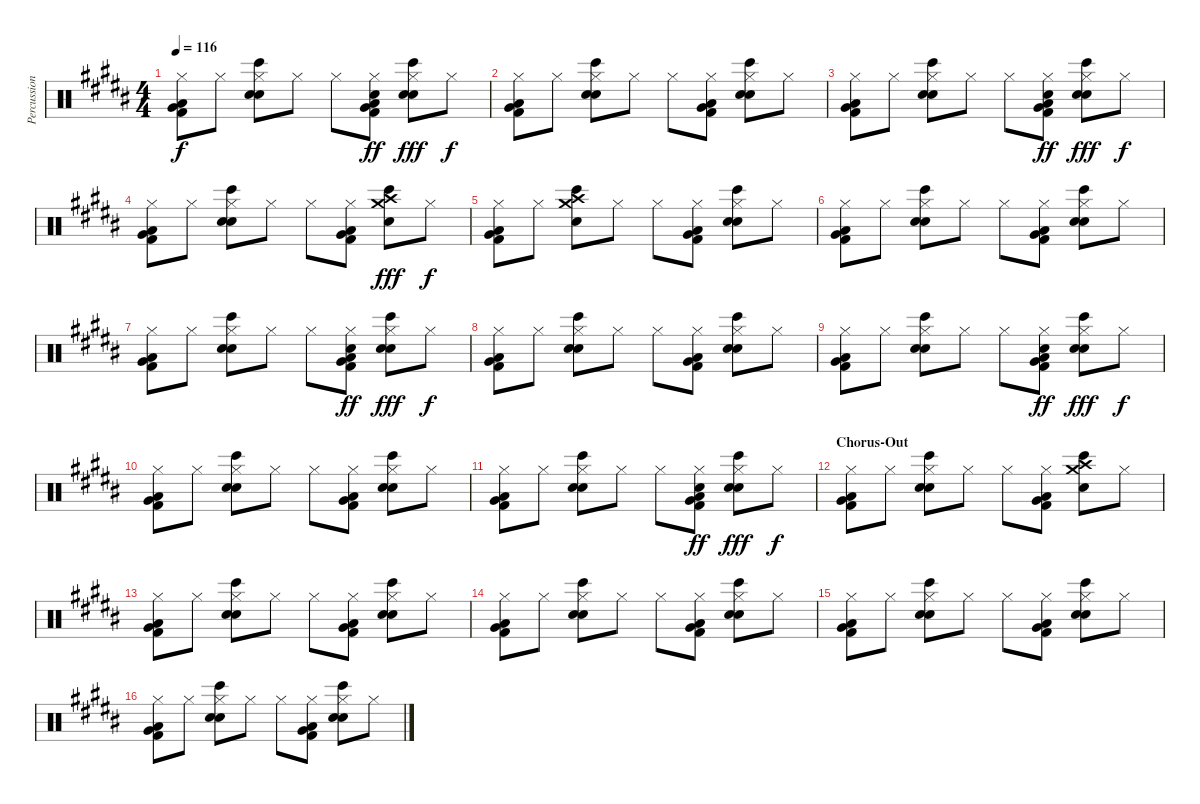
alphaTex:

\track ("Percussion" "Percussion") {instrument percussion}
\staff {score}
\articulation defaults
\ts (4 4)
\tempo 116
\clef neutral
\ks b
("Low Tom (hit)" "Very Low Tom (hit)" "Kick (hit) 2" "Hi-Hat (closed)").8{dy f} "Hi-Hat (closed)".8 ("Bongo High (hit)" "Hand Clap (hit)" "Snare (hit) 2" "Hi-Hat (closed)").8 "Hi-Hat (closed)".8 "Hi-Hat (closed)".8 ("Low Tom (hit)" "Very Low Tom (hit)" "Kick (hit) 2" "Hi-Hat (closed)" "Hand Clap (hit)").8{dy ff} ("Bongo High (hit)" "Hand Clap (hit)" "Snare (hit) 2" "Hi-Hat (closed)").8{dy fff} "Hi-Hat (closed)".8{dy f} |
("Low Tom (hit)" "Very Low Tom (hit)" "Kick (hit) 2" "Hi-Hat (closed)").8 "Hi-Hat (closed)".8 ("Bongo High (hit)" "Hand Clap (hit)" "Snare (hit) 2" "Hi-Hat (closed)").8 "Hi-Hat (closed)".8 "Hi-Hat (closed)".8 ("Low Tom (hit)" "Very Low Tom (hit)" "Kick (hit) 2" "Hi-Hat (closed)").8 ("Bongo High (hit)" "Hand Clap (hit)" "Snare (hit) 2" "Hi-Hat (closed)").8 "Hi-Hat (closed)".8 |
("Low Tom (hit)" "Very Low Tom (hit)" "Kick (hit) 2" "Hi-Hat (closed)").8 "Hi-Hat (closed)".8 ("Bongo High (hit)" "Hand Clap (hit)" "Snare (hit) 2" "Hi-Hat (closed)").8 "Hi-Hat (closed)".8 "Hi-Hat (closed)".8 ("Low Tom (hit)" "Very Low Tom (hit)" "Kick (hit) 2" "Hi-Hat (closed)" "Hand Clap (hit)").8{dy ff} ("Bongo High (hit)" "Hand Clap (hit)" "Snare (hit) 2" "Hi-Hat (closed)").8{dy fff} "Hi-Hat (closed)".8{dy f} |
("Low Tom (hit)" "Very Low Tom (hit)" "Kick (hit) 2" "Hi-Hat (closed)").8 "Hi-Hat (closed)".8 ("Bongo High (hit)" "Hand Clap (hit)" "Snare (hit) 2" "Hi-Hat (closed)").8 "Hi-Hat (closed)".8 "Hi-Hat (closed)".8 ("Low Tom (hit)" "Very Low Tom (hit)" "Kick (hit) 2" "Hi-Hat (closed)").8 ("Bongo High (hit)" "Hand Clap (hit)" "Crash medium (hit)" "Crash high (hit)").8{dy fff} "Hi-Hat (closed)".8{dy f} |
("Low Tom (hit)" "Very Low Tom (hit)" "Kick (hit) 2" "Hi-Hat (closed)").8 "Hi-Hat (closed)".8 ("Bongo High (hit)" "Hand Clap (hit)" "Crash medium (hit)" "Crash high (hit)").8 "Hi-Hat (closed)".8 "Hi-Hat (closed)".8 ("Low Tom (hit)" "Very Low Tom (hit)" "Kick (hit) 2" "Hi-Hat (closed)").8 ("Bongo High (hit)" "Hand Clap (hit)" "Snare (hit) 2" "Hi-Hat (closed)").8 "Hi-Hat (closed)".8 |
("Low Tom (hit)" "Very Low Tom (hit)" "Kick (hit) 2" "Hi-Hat (closed)").8 "Hi-Hat (closed)".8 ("Bongo High (hit)" "Hand Clap (hit)" "Snare (hit) 2" "Hi-Hat (closed)").8 "Hi-Hat (closed)".8 "Hi-Hat (closed)".8 ("Low Tom (hit)" "Very Low Tom (hit)" "Kick (hit) 2" "Hi-Hat (closed)").8 ("Bongo High (hit)" "Hand Clap (hit)" "Snare (hit) 2" "Hi-Hat (closed)").8 "Hi-Hat (closed)".8 |
("Low Tom (hit)" "Very Low Tom (hit)" "Kick (hit) 2" "Hi-Hat (closed)").8 "Hi-Hat (closed)".8 ("Bongo High (hit)" "Hand Clap (hit)" "Snare (hit) 2" "Hi-Hat (closed)").8 "Hi-Hat (closed)".8 "Hi-Hat (closed)".8 ("Low Tom (hit)" "Very Low Tom (hit)" "Kick (hit) 2" "Hi-Hat (closed)" "Hand Clap (hit)").8{dy ff} ("Bongo High (hit)" "Hand Clap (hit)" "Snare (hit) 2" "Hi-Hat (closed)").8{dy fff} "Hi-Hat (closed)".8{dy f} |
("Low Tom (hit)" "Very Low Tom (hit)" "Kick (hit) 2" "Hi-Hat (closed)").8 "Hi-Hat (closed)".8 ("Bongo High (hit)" "Hand Clap (hit)" "Snare (hit) 2" "Hi-Hat (closed)").8 "Hi-Hat (closed)".8 "Hi-Hat (closed)".8 ("Low Tom (hit)" "Very Low Tom (hit)" "Kick (hit) 2" "Hi-Hat (closed)").8 ("Bongo High (hit)" "Hand Clap (hit)" "Snare (hit) 2" "Hi-Hat (closed)").8 "Hi-Hat (closed)".8 |
("Low Tom (hit)" "Very Low Tom (hit)" "Kick (hit) 2" "Hi-Hat (closed)").8 "Hi-Hat (closed)".8 ("Bongo High (hit)" "Hand Clap (hit)" "Snare (hit) 2" "Hi-Hat (closed)").8 "Hi-Hat (closed)".8 "Hi-Hat (closed)".8 ("Low Tom (hit)" "Very Low Tom (hit)" "Kick (hit) 2" "Hi-Hat (closed)" "Hand Clap (hit)").8{dy ff} ("Bongo High (hit)" "Hand Clap (hit)" "Snare (hit) 2" "Hi-Hat (closed)").8{dy fff} "Hi-Hat (closed)".8{dy f} |
("Low Tom (hit)" "Very Low Tom (hit)" "Kick (hit) 2" "Hi-Hat (closed)").8 "Hi-Hat (closed)".8 ("Bongo High (hit)" "Hand Clap (hit)" "Snare (hit) 2" "Hi-Hat (closed)").8 "Hi-Hat (closed)".8 "Hi-Hat (closed)".8 ("Low Tom (hit)" "Very Low Tom (hit)" "Kick (hit) 2" "Hi-Hat (closed)").8 ("Bongo High (hit)" "Hand Clap (hit)" "Snare (hit) 2" "Hi-Hat (closed)").8 "Hi-Hat (closed)".8 |
("Low Tom (hit)" "Very Low Tom (hit)" "Kick (hit) 2" "Hi-Hat (closed)").8 "Hi-Hat (closed)".8 ("Bongo High (hit)" "Hand Clap (hit)" "Snare (hit) 2" "Hi-Hat (closed)").8 "Hi-Hat (closed)".8 "Hi-Hat (closed)".8 ("Low Tom (hit)" "Very Low Tom (hit)" "Kick (hit) 2" "Hi-Hat (closed)" "Hand Clap (hit)").8{dy ff} ("Bongo High (hit)" "Hand Clap (hit)" "Snare (hit) 2" "Hi-Hat (closed)").8{dy fff} "Hi-Hat (closed)".8{dy f} |
\section ("" "Chorus-Out")
("Low Tom (hit)" "Very Low Tom (hit)" "Kick (hit) 2" "Hi-Hat (closed)").8 "Hi-Hat (closed)".8 ("Bongo High (hit)" "Hand Clap (hit)" "Snare (hit) 2" "Hi-Hat (closed)").8 "Hi-Hat (closed)".8 "Hi-Hat (closed)".8 ("Low Tom (hit)" "Very Low Tom (hit)" "Kick (hit) 2" "Hi-Hat (closed)").8 ("Bongo High (hit)" "Hand Clap (hit)" "Crash medium (hit)" "Crash high (hit)").8 "Hi-Hat (closed)".8 |
("Low Tom (hit)" "Very Low Tom (hit)" "Kick (hit) 2" "Hi-Hat (closed)").8 "Hi-Hat (closed)".8 ("Bongo High (hit)" "Hand Clap (hit)" "Snare (hit) 2" "Hi-Hat (closed)").8 "Hi-Hat (closed)".8 "Hi-Hat (closed)".8 ("Low Tom (hit)" "Very Low Tom (hit)" "Kick (hit) 2" "Hi-Hat (closed)").8 ("Bongo High (hit)" "Hand Clap (hit)" "Snare (hit) 2" "Hi-Hat (closed)").8 "Hi-Hat (closed)".8 |
("Low Tom (hit)" "Very Low Tom (hit)" "Kick (hit) 2" "Hi-Hat (closed)").8 "Hi-Hat (closed)".8 ("Bongo High (hit)" "Hand Clap (hit)" "Snare (hit) 2" "Hi-Hat (closed)").8 "Hi-Hat (closed)".8 "Hi-Hat (closed)".8 ("Low Tom (hit)" "Very Low Tom (hit)" "Kick (hit) 2" "Hi-Hat (closed)").8 ("Bongo High (hit)" "Hand Clap (hit)" "Snare (hit) 2" "Hi-Hat (closed)").8 "Hi-Hat (closed)".8 |
("Low Tom (hit)" "Very Low Tom (hit)" "Kick (hit) 2" "Hi-Hat (closed)").8 "Hi-Hat (closed)".8 ("Bongo High (hit)" "Hand Clap (hit)" "Snare (hit) 2" "Hi-Hat (closed)").8 "Hi-Hat (closed)".8 "Hi-Hat (closed)".8 ("Low Tom (hit)" "Very Low Tom (hit)" "Kick (hit) 2" "Hi-Hat (closed)").8 ("Bongo High (hit)" "Hand Clap (hit)" "Snare (hit) 2" "Hi-Hat (closed)").8 "Hi-Hat (closed)".8 |
("Low Tom (hit)" "Very Low Tom (hit)" "Kick (hit) 2" "Hi-Hat (closed)").8 "Hi-Hat (closed)".8 ("Bongo High (hit)" "Hand Clap (hit)" "Snare (hit) 2" "Hi-Hat (closed)").8 "Hi-Hat (closed)".8 "Hi-Hat (closed)".8 ("Low Tom (hit)" "Very Low Tom (hit)" "Kick (hit) 2" "Hi-Hat (closed)").8 ("Bongo High (hit)" "Hand Clap (hit)" "Snare (hit) 2" "Hi-Hat (closed)").8 "Hi-Hat (closed)".8
